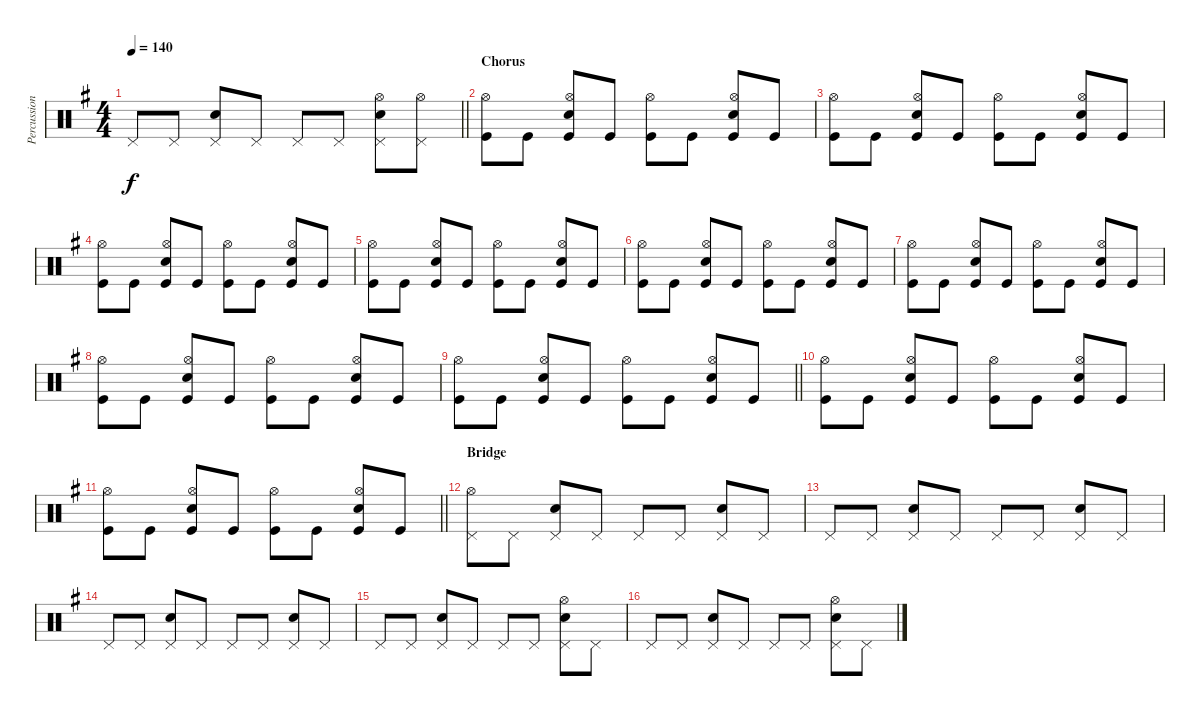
\track ("Percussion" "Percussion") {instrument percussion}
\staff {score}
\articulation defaults
\ts (4 4)
\tempo 140
\clef neutral
\barLineRight lightlight
\ks g "Pedal Hi-Hat (hit)".8{dy f} "Pedal Hi-Hat (hit)".8
("Pedal Hi-Hat (hit)" "Snare (hit) 2").8 "Pedal Hi-Hat (hit)".8 "Pedal Hi-Hat (hit)".8 "Pedal Hi-Hat (hit)".8 ("Pedal Hi-Hat (hit)" "Hi-Hat (open)" "Snare (hit) 2").8 ("Pedal Hi-Hat (hit)" "Hi-Hat (open)").8 |
\section ("" "Chorus")
("Hi-Hat (open)" "Kick (hit)").8 "Kick (hit)".8 ("Hi-Hat (open)" "Snare (hit) 2" "Kick (hit)").8 "Kick (hit)".8 ("Hi-Hat (open)" "Kick (hit)").8 "Kick (hit)".8 ("Hi-Hat (open)" "Snare (hit) 2" "Kick (hit)").8 "Kick (hit)".8 |
("Hi-Hat (open)" "Kick (hit)").8 "Kick (hit)".8 ("Hi-Hat (open)" "Snare (hit) 2" "Kick (hit)").8 "Kick (hit)".8 ("Hi-Hat (open)" "Kick (hit)").8 "Kick (hit)".8 ("Hi-Hat (open)" "Snare (hit) 2" "Kick (hit)").8 "Kick (hit)".8 |
("Hi-Hat (open)" "Kick (hit)").8 "Kick (hit)".8 ("Hi-Hat (open)" "Snare (hit) 2" "Kick (hit)").8 "Kick (hit)".8 ("Hi-Hat (open)" "Kick (hit)").8 "Kick (hit)".8 ("Hi-Hat (open)" "Snare (hit) 2" "Kick (hit)").8 "Kick (hit)".8 |
("Hi-Hat (open)" "Kick (hit)").8 "Kick (hit)".8 ("Hi-Hat (open)" "Snare (hit) 2" "Kick (hit)").8 "Kick (hit)".8 ("Hi-Hat (open)" "Kick (hit)").8 "Kick (hit)".8 ("Hi-Hat (open)" "Snare (hit) 2" "Kick (hit)").8 "Kick (hit)".8 |
("Hi-Hat (open)" "Kick (hit)").8 "Kick (hit)".8 ("Hi-Hat (open)" "Snare (hit) 2" "Kick (hit)").8 "Kick (hit)".8 ("Hi-Hat (open)" "Kick (hit)").8 "Kick (hit)".8 ("Hi-Hat (open)" "Snare (hit) 2" "Kick (hit)").8 "Kick (hit)".8 |
("Hi-Hat (open)" "Kick (hit)").8 "Kick (hit)".8 ("Hi-Hat (open)" "Snare (hit) 2" "Kick (hit)").8 "Kick (hit)".8 ("Hi-Hat (open)" "Kick (hit)").8 "Kick (hit)".8 ("Hi-Hat (open)" "Snare (hit) 2" "Kick (hit)").8 "Kick (hit)".8 |
("Hi-Hat (open)" "Kick (hit)").8 "Kick (hit)".8 ("Hi-Hat (open)" "Snare (hit) 2" "Kick (hit)").8 "Kick (hit)".8 ("Hi-Hat (open)" "Kick (hit)").8 "Kick (hit)".8 ("Hi-Hat (open)" "Snare (hit) 2" "Kick (hit)").8 "Kick (hit)".8 |
\barLineRight lightlight
("Hi-Hat (open)" "Kick (hit)").8 "Kick (hit)".8 ("Hi-Hat (open)" "Snare (hit) 2" "Kick (hit)").8 "Kick (hit)".8 ("Hi-Hat (open)" "Kick (hit)").8 "Kick (hit)".8 ("Hi-Hat (open)" "Snare (hit) 2" "Kick (hit)").8 "Kick (hit)".8 |
("Hi-Hat (open)" "Kick (hit)").8 "Kick (hit)".8 ("Hi-Hat (open)" "Snare (hit) 2" "Kick (hit)").8 "Kick (hit)".8 ("Hi-Hat (open)" "Kick (hit)").8 "Kick (hit)".8 ("Hi-Hat (open)" "Snare (hit) 2" "Kick (hit)").8 "Kick (hit)".8 |
\barLineRight lightlight
("Hi-Hat (open)" "Kick (hit)").8 "Kick (hit)".8 ("Hi-Hat (open)" "Snare (hit) 2" "Kick (hit)").8 "Kick (hit)".8 ("Hi-Hat (open)" "Kick (hit)").8 "Kick (hit)".8 ("Hi-Hat (open)" "Snare (hit) 2" "Kick (hit)").8 "Kick (hit)".8 |
\section ("" "Bridge")
("Pedal Hi-Hat (hit)" "Hi-Hat (open)").8 "Pedal Hi-Hat (hit)".8 ("Pedal Hi-Hat (hit)" "Snare (hit) 2").8 "Pedal Hi-Hat (hit)".8 "Pedal Hi-Hat (hit)".8 "Pedal Hi-Hat (hit)".8 ("Pedal Hi-Hat (hit)" "Snare (hit) 2").8 "Pedal Hi-Hat (hit)".8 |
"Pedal Hi-Hat (hit)".8 "Pedal Hi-Hat (hit)".8 ("Pedal Hi-Hat (hit)" "Snare (hit) 2").8 "Pedal Hi-Hat (hit)".8 "Pedal Hi-Hat (hit)".8 "Pedal Hi-Hat (hit)".8 ("Pedal Hi-Hat (hit)" "Snare (hit) 2").8 "Pedal Hi-Hat (hit)".8 |
"Pedal Hi-Hat (hit)".8 "Pedal Hi-Hat (hit)".8 ("Pedal Hi-Hat (hit)" "Snare (hit) 2").8 "Pedal Hi-Hat (hit)".8 "Pedal Hi-Hat (hit)".8 "Pedal Hi-Hat (hit)".8 ("Pedal Hi-Hat (hit)" "Snare (hit) 2").8 "Pedal Hi-Hat (hit)".8 |
"Pedal Hi-Hat (hit)".8 "Pedal Hi-Hat (hit)".8 ("Pedal Hi-Hat (hit)" "Snare (hit) 2").8 "Pedal Hi-Hat (hit)".8 "Pedal Hi-Hat (hit)".8 "Pedal Hi-Hat (hit)".8 ("Pedal Hi-Hat (hit)" "Hi-Hat (open)" "Snare (hit) 2").8 "Pedal Hi-Hat (hit)".8 |
"Pedal Hi-Hat (hit)".8 "Pedal Hi-Hat (hit)".8 ("Pedal Hi-Hat (hit)" "Snare (hit) 2").8 "Pedal Hi-Hat (hit)".8 "Pedal Hi-Hat (hit)".8 "Pedal Hi-Hat (hit)".8 ("Pedal Hi-Hat (hit)" "Hi-Hat (open)" "Snare (hit) 2").8 "Pedal Hi-Hat (hit)".8
